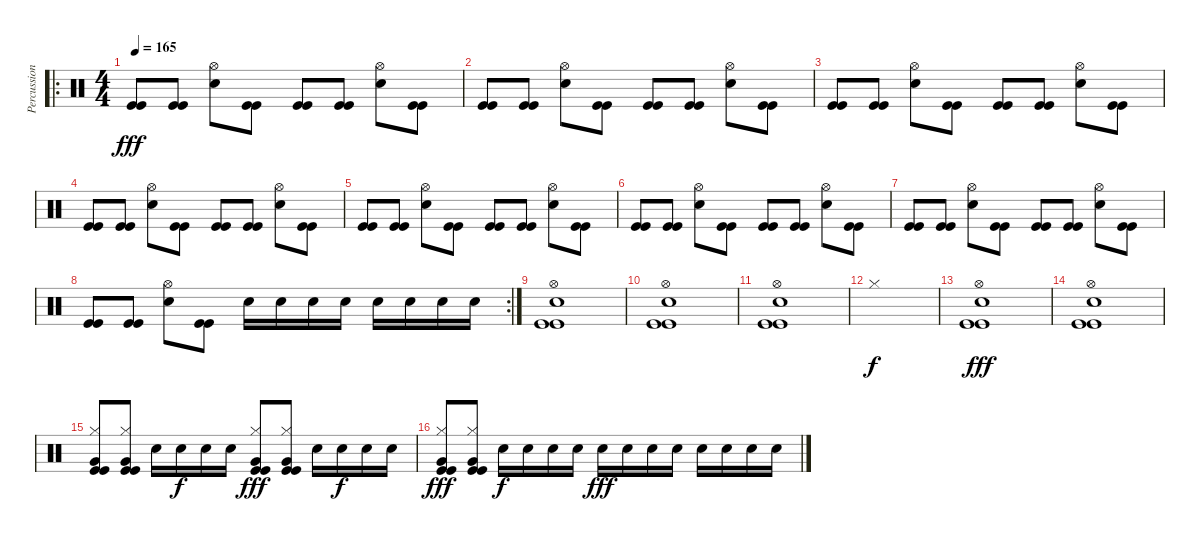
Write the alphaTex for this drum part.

\track ("Percussions" "Percussion") {instrument percussion}
\staff {score}
\articulation defaults
\ro
\ts (4 4)
\tempo 165
\clef neutral
\ks c
("Kick (hit)" "Kick (hit)").8{dy fff} ("Kick (hit)" "Kick (hit)").8 ("Snare (hit) 2" "Hi-Hat (open)").8 ("Kick (hit)" "Kick (hit)").8 ("Kick (hit)" "Kick (hit)").8 ("Kick (hit)" "Kick (hit)").8 ("Snare (hit) 2" "Hi-Hat (open)").8 ("Kick (hit)" "Kick (hit)").8 |
("Kick (hit)" "Kick (hit)").8 ("Kick (hit)" "Kick (hit)").8 ("Snare (hit) 2" "Hi-Hat (open)").8 ("Kick (hit)" "Kick (hit)").8 ("Kick (hit)" "Kick (hit)").8 ("Kick (hit)" "Kick (hit)").8 ("Snare (hit) 2" "Hi-Hat (open)").8 ("Kick (hit)" "Kick (hit)").8 |
("Kick (hit)" "Kick (hit)").8 ("Kick (hit)" "Kick (hit)").8 ("Snare (hit) 2" "Hi-Hat (open)").8 ("Kick (hit)" "Kick (hit)").8 ("Kick (hit)" "Kick (hit)").8 ("Kick (hit)" "Kick (hit)").8 ("Snare (hit) 2" "Hi-Hat (open)").8 ("Kick (hit)" "Kick (hit)").8 |
("Kick (hit)" "Kick (hit)").8 ("Kick (hit)" "Kick (hit)").8 ("Snare (hit) 2" "Hi-Hat (open)").8 ("Kick (hit)" "Kick (hit)").8 ("Kick (hit)" "Kick (hit)").8 ("Kick (hit)" "Kick (hit)").8 ("Snare (hit) 2" "Hi-Hat (open)").8 ("Kick (hit)" "Kick (hit)").8 |
("Kick (hit)" "Kick (hit)").8 ("Kick (hit)" "Kick (hit)").8 ("Snare (hit) 2" "Hi-Hat (open)").8 ("Kick (hit)" "Kick (hit)").8 ("Kick (hit)" "Kick (hit)").8 ("Kick (hit)" "Kick (hit)").8 ("Snare (hit) 2" "Hi-Hat (open)").8 ("Kick (hit)" "Kick (hit)").8 |
("Kick (hit)" "Kick (hit)").8 ("Kick (hit)" "Kick (hit)").8 ("Snare (hit) 2" "Hi-Hat (open)").8 ("Kick (hit)" "Kick (hit)").8 ("Kick (hit)" "Kick (hit)").8 ("Kick (hit)" "Kick (hit)").8 ("Snare (hit) 2" "Hi-Hat (open)").8 ("Kick (hit)" "Kick (hit)").8 |
("Kick (hit)" "Kick (hit)").8 ("Kick (hit)" "Kick (hit)").8 ("Snare (hit) 2" "Hi-Hat (open)").8 ("Kick (hit)" "Kick (hit)").8 ("Kick (hit)" "Kick (hit)").8 ("Kick (hit)" "Kick (hit)").8 ("Snare (hit) 2" "Hi-Hat (open)").8 ("Kick (hit)" "Kick (hit)").8 |
\rc 2
("Kick (hit)" "Kick (hit)").8 ("Kick (hit)" "Kick (hit)").8 ("Snare (hit) 2" "Hi-Hat (open)").8 ("Kick (hit)" "Kick (hit)").8 "Snare (hit) 2".16 "Snare (hit) 2".16 "Snare (hit) 2".16 "Snare (hit) 2".16 "Snare (hit) 2".16 "Snare (hit) 2".16 "Snare (hit) 2".16 "Snare (hit) 2".16 |
("Kick (hit)" "Kick (hit)" "Snare (hit) 2" "Hi-Hat (open)").1 |
("Kick (hit)" "Kick (hit)" "Snare (hit) 2" "Hi-Hat (open)").1 |
("Kick (hit)" "Kick (hit)" "Snare (hit) 2" "Hi-Hat (open)").1 |
"Hi-Hat (closed)".1{dy f} |
("Kick (hit)" "Kick (hit)" "Snare (hit) 2" "Hi-Hat (open)").1{dy fff} |
("Kick (hit)" "Kick (hit)" "Snare (hit) 2" "Hi-Hat (open)").1 |
("Kick (hit)" "Kick (hit)" "Very Low Tom (hit)" "Hi-Hat (closed)").8 ("Kick (hit)" "Kick (hit)" "Very Low Tom (hit)" "Hi-Hat (closed)").8 "Snare (hit) 2".16 "Snare (hit) 2".16{dy f} "Snare (hit) 2".16 "Snare (hit) 2".16 ("Kick (hit)" "Kick (hit)" "Very Low Tom (hit)" "Hi-Hat (closed)").8{dy fff} ("Kick (hit)" "Kick (hit)" "Very Low Tom (hit)" "Hi-Hat (closed)").8 "Snare (hit) 2".16 "Snare (hit) 2".16{dy f} "Snare (hit) 2".16 "Snare (hit) 2".16 |
("Kick (hit)" "Kick (hit)" "Very Low Tom (hit)" "Hi-Hat (closed)").8{dy fff} ("Kick (hit)" "Kick (hit)" "Very Low Tom (hit)" "Hi-Hat (closed)").8 "Snare (hit) 2".16{dy f} "Snare (hit) 2".16 "Snare (hit) 2".16 "Snare (hit) 2".16 "Snare (hit) 2".16{dy fff} "Snare (hit) 2".16 "Snare (hit) 2".16 "Snare (hit) 2".16 "Snare (hit) 2".16 "Snare (hit) 2".16 "Snare (hit) 2".16 "Snare (hit) 2".16
